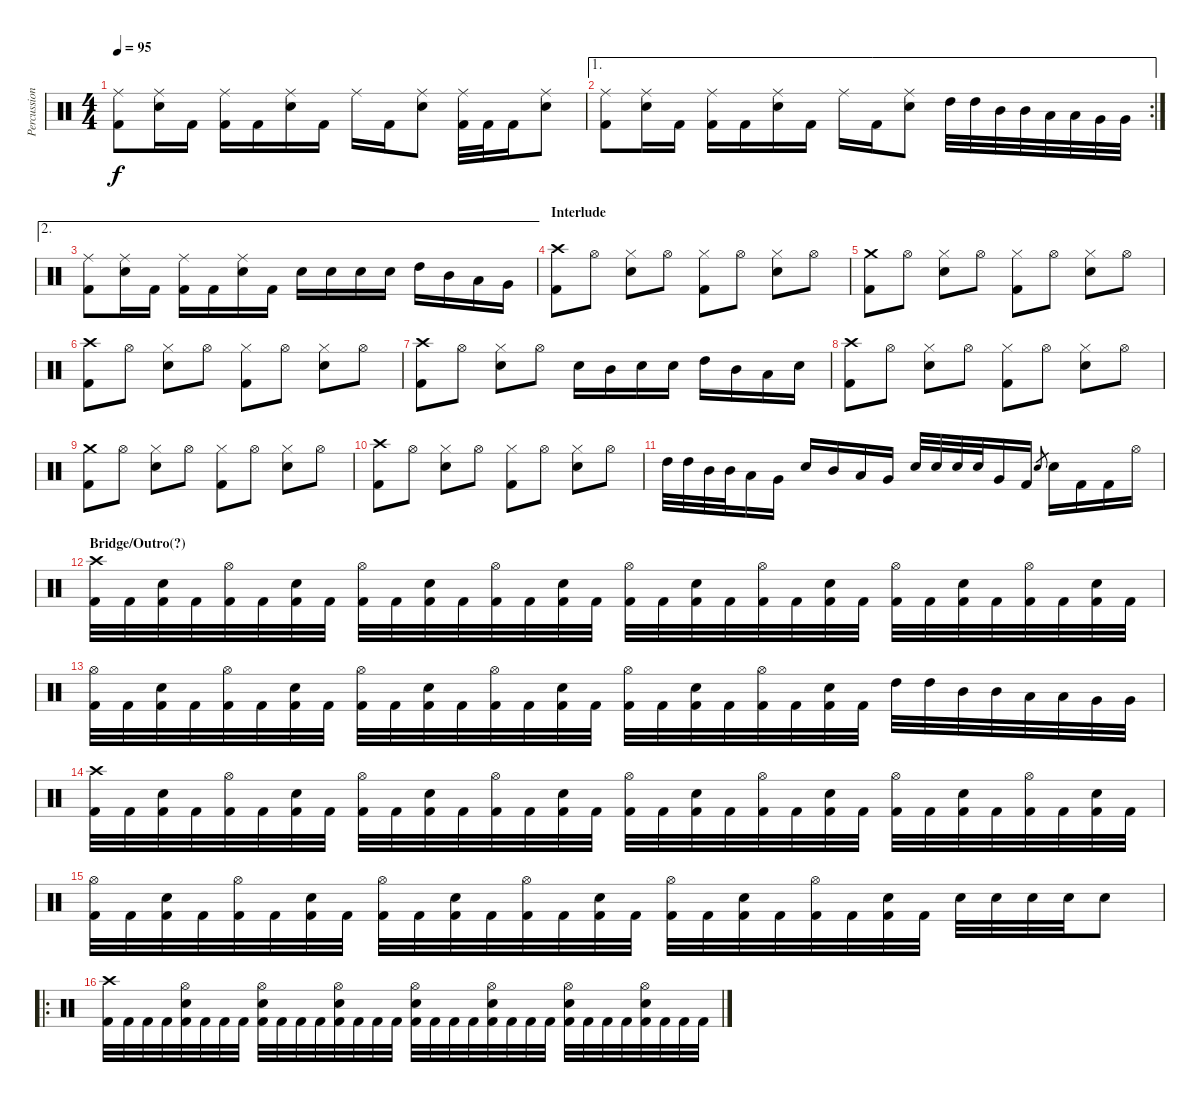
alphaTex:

\track ("Percussion" "Percussion") {instrument percussion}
\staff {score}
\articulation defaults
\ts (4 4)
\tempo 95
\clef neutral
\ks c
("Kick (hit) 2" "Ride (middle)").8{dy f} ("Ride (middle)" "Snare (hit) 2").16 "Kick (hit) 2".16 ("Kick (hit) 2" "Ride (middle)").16 "Kick (hit) 2".16 ("Ride (middle)" "Snare (hit) 2").16 "Kick (hit) 2".16 "Ride (middle)".16 "Kick (hit) 2".16 ("Ride (middle)" "Snare (hit) 2").8 ("Kick (hit) 2" "Ride (middle)").32 "Kick (hit) 2".32 "Kick (hit) 2".16 ("Ride (middle)" "Snare (hit) 2").8 |
\ae 1
\rc 2
("Kick (hit) 2" "Ride (middle)").8 ("Ride (middle)" "Snare (hit) 2").16 "Kick (hit) 2".16 ("Kick (hit) 2" "Ride (middle)").16 "Kick (hit) 2".16 ("Ride (middle)" "Snare (hit) 2").16 "Kick (hit) 2".16 "Ride (middle)".16 "Kick (hit) 2".16 ("Ride (middle)" "Snare (hit) 2").8 "High Tom (hit)".32 "High Tom (hit)".32 "Mid Tom (hit)".32 "Mid Tom (hit)".32 "Low Tom (hit)".32 "Low Tom (hit)".32 "Very Low Tom (hit)".32 "Very Low Tom (hit)".32 |
\ae 2
("Kick (hit) 2" "Ride (middle)").8 ("Ride (middle)" "Snare (hit) 2").16 "Kick (hit) 2".16 ("Kick (hit) 2" "Ride (middle)").16 "Kick (hit) 2".16 ("Ride (middle)" "Snare (hit) 2").16 "Kick (hit) 2".16 "Snare (hit) 2".16 "Snare (hit) 2".16 "Snare (hit) 2".16 "Snare (hit) 2".16 "High Tom (hit)".16 "Mid Tom (hit)".16 "Low Tom (hit)".16 "Very Low Tom (hit)".16 |
\section ("" "Interlude")
("Kick (hit) 2" "Crash high (hit)").8 "Hi-Hat (open)".8 ("Snare (hit) 2" "Hi-Hat (closed)").8 "Hi-Hat (open)".8 ("Kick (hit) 2" "Hi-Hat (closed)").8 "Hi-Hat (open)".8 ("Snare (hit) 2" "Hi-Hat (closed)").8 "Hi-Hat (open)".8 |
("Kick (hit) 2" "Crash medium (hit)").8 "Hi-Hat (open)".8 ("Snare (hit) 2" "Hi-Hat (closed)").8 "Hi-Hat (open)".8 ("Kick (hit) 2" "Hi-Hat (closed)").8 "Hi-Hat (open)".8 ("Snare (hit) 2" "Hi-Hat (closed)").8 "Hi-Hat (open)".8 |
("Kick (hit) 2" "Crash high (hit)").8 "Hi-Hat (open)".8 ("Snare (hit) 2" "Hi-Hat (closed)").8 "Hi-Hat (open)".8 ("Kick (hit) 2" "Hi-Hat (closed)").8 "Hi-Hat (open)".8 ("Snare (hit) 2" "Hi-Hat (closed)").8 "Hi-Hat (open)".8 |
("Kick (hit) 2" "Crash high (hit)").8 "Hi-Hat (open)".8 ("Snare (hit) 2" "Hi-Hat (closed)").8 "Hi-Hat (open)".8 "Snare (hit) 2".16 "Mid Tom (hit)".16 "Snare (hit) 2".16 "Snare (hit) 2".16 "High Tom (hit)".16 "Mid Tom (hit)".16 "Low Tom (hit)".16 "Snare (hit) 2".16 |
("Kick (hit) 2" "Crash high (hit)").8 "Hi-Hat (open)".8 ("Snare (hit) 2" "Hi-Hat (closed)").8 "Hi-Hat (open)".8 ("Kick (hit) 2" "Hi-Hat (closed)").8 "Hi-Hat (open)".8 ("Snare (hit) 2" "Hi-Hat (closed)").8 "Hi-Hat (open)".8 |
("Kick (hit) 2" "Crash medium (hit)").8 "Hi-Hat (open)".8 ("Snare (hit) 2" "Hi-Hat (closed)").8 "Hi-Hat (open)".8 ("Kick (hit) 2" "Hi-Hat (closed)").8 "Hi-Hat (open)".8 ("Snare (hit) 2" "Hi-Hat (closed)").8 "Hi-Hat (open)".8 |
("Kick (hit) 2" "Crash high (hit)").8 "Hi-Hat (open)".8 ("Snare (hit) 2" "Hi-Hat (closed)").8 "Hi-Hat (open)".8 ("Kick (hit) 2" "Hi-Hat (closed)").8 "Hi-Hat (open)".8 ("Snare (hit) 2" "Hi-Hat (closed)").8 "Hi-Hat (open)".8 |
"High Tom (hit)".32 "High Tom (hit)".32 "Mid Tom (hit)".32 "Mid Tom (hit)".32 "Low Tom (hit)".16 "Very Low Tom (hit)".16 "Snare (hit) 2".16 "Mid Tom (hit)".16 "Low Tom (hit)".16 "Very Low Tom (hit)".16 "Snare (hit) 2".32 "Snare (hit) 2".32 "Snare (hit) 2".32 "Snare (hit) 2".32 "Very Low Tom (hit)".16 "Kick (hit) 2".16 "Snare (hit) 2".8{gr} "Snare (hit) 2".16 "Kick (hit) 2".16 "Kick (hit) 2".16 "Hi-Hat (open)".16 |
\section ("" "Bridge/Outro(?)")
("Kick (hit) 2" "Crash high (hit)").32 "Kick (hit) 2".32 ("Kick (hit) 2" "Snare (hit) 2").32 "Kick (hit) 2".32 ("Kick (hit) 2" "Hi-Hat (open)").32 "Kick (hit) 2".32 ("Kick (hit) 2" "Snare (hit) 2").32 "Kick (hit) 2".32 ("Kick (hit) 2" "Hi-Hat (open)").32 "Kick (hit) 2".32 ("Kick (hit) 2" "Snare (hit) 2").32 "Kick (hit) 2".32 ("Kick (hit) 2" "Hi-Hat (open)").32 "Kick (hit) 2".32 ("Kick (hit) 2" "Snare (hit) 2").32 "Kick (hit) 2".32 ("Kick (hit) 2" "Hi-Hat (open)").32 "Kick (hit) 2".32 ("Kick (hit) 2" "Snare (hit) 2").32 "Kick (hit) 2".32 ("Kick (hit) 2" "Hi-Hat (open)").32 "Kick (hit) 2".32 ("Kick (hit) 2" "Snare (hit) 2").32 "Kick (hit) 2".32 ("Kick (hit) 2" "Hi-Hat (open)").32 "Kick (hit) 2".32 ("Kick (hit) 2" "Snare (hit) 2").32 "Kick (hit) 2".32 ("Kick (hit) 2" "Hi-Hat (open)").32 "Kick (hit) 2".32 ("Kick (hit) 2" "Snare (hit) 2").32 "Kick (hit) 2".32 |
("Kick (hit) 2" "Hi-Hat (open)").32 "Kick (hit) 2".32 ("Kick (hit) 2" "Snare (hit) 2").32 "Kick (hit) 2".32 ("Kick (hit) 2" "Hi-Hat (open)").32 "Kick (hit) 2".32 ("Kick (hit) 2" "Snare (hit) 2").32 "Kick (hit) 2".32 ("Kick (hit) 2" "Hi-Hat (open)").32 "Kick (hit) 2".32 ("Kick (hit) 2" "Snare (hit) 2").32 "Kick (hit) 2".32 ("Kick (hit) 2" "Hi-Hat (open)").32 "Kick (hit) 2".32 ("Kick (hit) 2" "Snare (hit) 2").32 "Kick (hit) 2".32 ("Kick (hit) 2" "Hi-Hat (open)").32 "Kick (hit) 2".32 ("Kick (hit) 2" "Snare (hit) 2").32 "Kick (hit) 2".32 ("Kick (hit) 2" "Hi-Hat (open)").32 "Kick (hit) 2".32 ("Kick (hit) 2" "Snare (hit) 2").32 "Kick (hit) 2".32 "High Tom (hit)".32 "High Tom (hit)".32 "Mid Tom (hit)".32 "Mid Tom (hit)".32 "Low Tom (hit)".32 "Low Tom (hit)".32 "Very Low Tom (hit)".32 "Very Low Tom (hit)".32 |
("Kick (hit) 2" "Crash high (hit)").32 "Kick (hit) 2".32 ("Kick (hit) 2" "Snare (hit) 2").32 "Kick (hit) 2".32 ("Kick (hit) 2" "Hi-Hat (open)").32 "Kick (hit) 2".32 ("Kick (hit) 2" "Snare (hit) 2").32 "Kick (hit) 2".32 ("Kick (hit) 2" "Hi-Hat (open)").32 "Kick (hit) 2".32 ("Kick (hit) 2" "Snare (hit) 2").32 "Kick (hit) 2".32 ("Kick (hit) 2" "Hi-Hat (open)").32 "Kick (hit) 2".32 ("Kick (hit) 2" "Snare (hit) 2").32 "Kick (hit) 2".32 ("Kick (hit) 2" "Hi-Hat (open)").32 "Kick (hit) 2".32 ("Kick (hit) 2" "Snare (hit) 2").32 "Kick (hit) 2".32 ("Kick (hit) 2" "Hi-Hat (open)").32 "Kick (hit) 2".32 ("Kick (hit) 2" "Snare (hit) 2").32 "Kick (hit) 2".32 ("Kick (hit) 2" "Hi-Hat (open)").32 "Kick (hit) 2".32 ("Kick (hit) 2" "Snare (hit) 2").32 "Kick (hit) 2".32 ("Kick (hit) 2" "Hi-Hat (open)").32 "Kick (hit) 2".32 ("Kick (hit) 2" "Snare (hit) 2").32 "Kick (hit) 2".32 |
("Kick (hit) 2" "Hi-Hat (open)").32 "Kick (hit) 2".32 ("Kick (hit) 2" "Snare (hit) 2").32 "Kick (hit) 2".32 ("Kick (hit) 2" "Hi-Hat (open)").32 "Kick (hit) 2".32 ("Kick (hit) 2" "Snare (hit) 2").32 "Kick (hit) 2".32 ("Kick (hit) 2" "Hi-Hat (open)").32 "Kick (hit) 2".32 ("Kick (hit) 2" "Snare (hit) 2").32 "Kick (hit) 2".32 ("Kick (hit) 2" "Hi-Hat (open)").32 "Kick (hit) 2".32 ("Kick (hit) 2" "Snare (hit) 2").32 "Kick (hit) 2".32 ("Kick (hit) 2" "Hi-Hat (open)").32 "Kick (hit) 2".32 ("Kick (hit) 2" "Snare (hit) 2").32 "Kick (hit) 2".32 ("Kick (hit) 2" "Hi-Hat (open)").32 "Kick (hit) 2".32 ("Kick (hit) 2" "Snare (hit) 2").32 "Kick (hit) 2".32 "Snare (hit) 2".32 "Snare (hit) 2".32 "Snare (hit) 2".32 "Snare (hit) 2".32 "Snare (hit) 2".8 |
\ro
("Kick (hit) 2" "Crash high (hit)").32 "Kick (hit) 2".32 "Kick (hit) 2".32 "Kick (hit) 2".32 ("Kick (hit) 2" "Snare (hit) 2" "Hi-Hat (open)").32 "Kick (hit) 2".32 "Kick (hit) 2".32 "Kick (hit) 2".32 ("Kick (hit) 2" "Snare (hit) 2" "Hi-Hat (open)").32 "Kick (hit) 2".32 "Kick (hit) 2".32 "Kick (hit) 2".32 ("Kick (hit) 2" "Snare (hit) 2" "Hi-Hat (open)").32 "Kick (hit) 2".32 "Kick (hit) 2".32 "Kick (hit) 2".32 ("Kick (hit) 2" "Snare (hit) 2" "Hi-Hat (open)").32 "Kick (hit) 2".32 "Kick (hit) 2".32 "Kick (hit) 2".32 ("Kick (hit) 2" "Snare (hit) 2" "Hi-Hat (open)").32 "Kick (hit) 2".32 "Kick (hit) 2".32 "Kick (hit) 2".32 ("Kick (hit) 2" "Snare (hit) 2" "Hi-Hat (open)").32 "Kick (hit) 2".32 "Kick (hit) 2".32 "Kick (hit) 2".32 ("Kick (hit) 2" "Snare (hit) 2" "Hi-Hat (open)").32 "Kick (hit) 2".32 "Kick (hit) 2".32 "Kick (hit) 2".32
